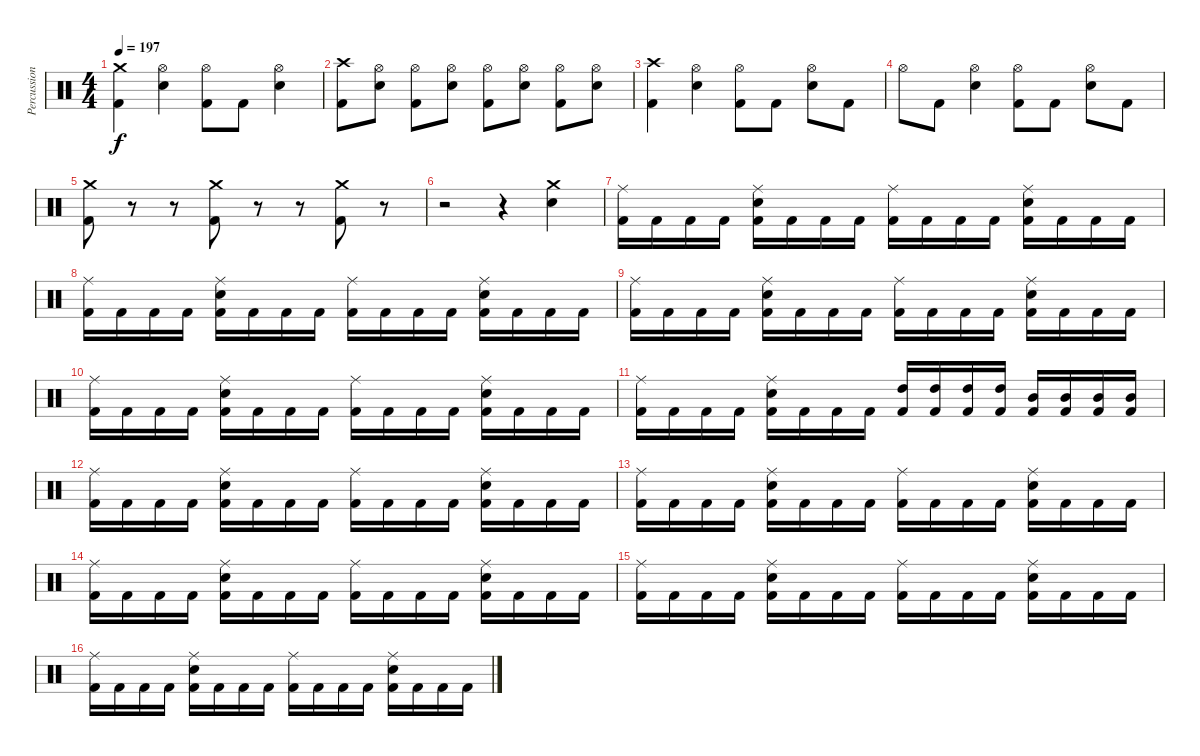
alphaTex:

\track ("Percussions" "Percussion") {instrument percussion}
\staff {score}
\articulation defaults
\ts (4 4)
\tempo 197
\clef neutral
\ks c
("Crash medium (hit)" "Kick (hit) 2").4{dy f} ("Hi-Hat (open)" "Snare (hit) 2").4 ("Hi-Hat (open)" "Kick (hit) 2").8 "Kick (hit) 2".8 ("Hi-Hat (open)" "Snare (hit) 2").4 |
("Crash high (hit)" "Kick (hit) 2").8 ("Hi-Hat (open)" "Snare (hit) 2").8 ("Hi-Hat (open)" "Kick (hit) 2").8 ("Hi-Hat (open)" "Snare (hit) 2").8 ("Hi-Hat (open)" "Kick (hit) 2").8 ("Hi-Hat (open)" "Snare (hit) 2").8 ("Hi-Hat (open)" "Kick (hit) 2").8 ("Hi-Hat (open)" "Snare (hit) 2").8 |
("Crash high (hit)" "Kick (hit) 2").4 ("Hi-Hat (open)" "Snare (hit) 2").4 ("Hi-Hat (open)" "Kick (hit) 2").8 "Kick (hit) 2".8 ("Hi-Hat (open)" "Snare (hit) 2").8 "Kick (hit) 2".8 |
"Hi-Hat (open)".8 "Kick (hit) 2".8 ("Hi-Hat (open)" "Snare (hit) 2").4 ("Hi-Hat (open)" "Kick (hit) 2").8 "Kick (hit) 2".8 ("Hi-Hat (open)" "Snare (hit) 2").8 "Kick (hit) 2".8 |
("Crash medium (hit)" "Kick (hit) 2").8 r.8 r.8 ("Crash medium (hit)" "Kick (hit) 2").8 r.8 r.8 ("Crash medium (hit)" "Kick (hit) 2").8 r.8 |
r.2 r.4 ("Crash medium (hit)" "Snare (hit) 2").4 |
("Ride (middle)" "Kick (hit) 2").16 "Kick (hit) 2".16 "Kick (hit) 2".16 "Kick (hit) 2".16 ("Ride (middle)" "Snare (hit) 2" "Kick (hit) 2").16 "Kick (hit) 2".16 "Kick (hit) 2".16 "Kick (hit) 2".16 ("Ride (middle)" "Kick (hit) 2").16 "Kick (hit) 2".16 "Kick (hit) 2".16 "Kick (hit) 2".16 ("Ride (middle)" "Snare (hit) 2" "Kick (hit) 2").16 "Kick (hit) 2".16 "Kick (hit) 2".16 "Kick (hit) 2".16 |
("Ride (middle)" "Kick (hit) 2").16 "Kick (hit) 2".16 "Kick (hit) 2".16 "Kick (hit) 2".16 ("Ride (middle)" "Snare (hit) 2" "Kick (hit) 2").16 "Kick (hit) 2".16 "Kick (hit) 2".16 "Kick (hit) 2".16 ("Ride (middle)" "Kick (hit) 2").16 "Kick (hit) 2".16 "Kick (hit) 2".16 "Kick (hit) 2".16 ("Ride (middle)" "Snare (hit) 2" "Kick (hit) 2").16 "Kick (hit) 2".16 "Kick (hit) 2".16 "Kick (hit) 2".16 |
("Ride (middle)" "Kick (hit) 2").16 "Kick (hit) 2".16 "Kick (hit) 2".16 "Kick (hit) 2".16 ("Ride (middle)" "Snare (hit) 2" "Kick (hit) 2").16 "Kick (hit) 2".16 "Kick (hit) 2".16 "Kick (hit) 2".16 ("Ride (middle)" "Kick (hit) 2").16 "Kick (hit) 2".16 "Kick (hit) 2".16 "Kick (hit) 2".16 ("Ride (middle)" "Snare (hit) 2" "Kick (hit) 2").16 "Kick (hit) 2".16 "Kick (hit) 2".16 "Kick (hit) 2".16 |
("Ride (middle)" "Kick (hit) 2").16 "Kick (hit) 2".16 "Kick (hit) 2".16 "Kick (hit) 2".16 ("Ride (middle)" "Snare (hit) 2" "Kick (hit) 2").16 "Kick (hit) 2".16 "Kick (hit) 2".16 "Kick (hit) 2".16 ("Ride (middle)" "Kick (hit) 2").16 "Kick (hit) 2".16 "Kick (hit) 2".16 "Kick (hit) 2".16 ("Ride (middle)" "Snare (hit) 2" "Kick (hit) 2").16 "Kick (hit) 2".16 "Kick (hit) 2".16 "Kick (hit) 2".16 |
("Ride (middle)" "Kick (hit) 2").16 "Kick (hit) 2".16 "Kick (hit) 2".16 "Kick (hit) 2".16 ("Ride (middle)" "Snare (hit) 2" "Kick (hit) 2").16 "Kick (hit) 2".16 "Kick (hit) 2".16 "Kick (hit) 2".16 ("High Tom (hit)" "Kick (hit) 2").16 ("High Tom (hit)" "Kick (hit) 2").16 ("High Tom (hit)" "Kick (hit) 2").16 ("High Tom (hit)" "Kick (hit) 2").16 ("Mid Tom (hit)" "Kick (hit) 2").16 ("Mid Tom (hit)" "Kick (hit) 2").16 ("Mid Tom (hit)" "Kick (hit) 2").16 ("Mid Tom (hit)" "Kick (hit) 2").16 |
("Ride (middle)" "Kick (hit) 2").16 "Kick (hit) 2".16 "Kick (hit) 2".16 "Kick (hit) 2".16 ("Ride (middle)" "Snare (hit) 2" "Kick (hit) 2").16 "Kick (hit) 2".16 "Kick (hit) 2".16 "Kick (hit) 2".16 ("Ride (middle)" "Kick (hit) 2").16 "Kick (hit) 2".16 "Kick (hit) 2".16 "Kick (hit) 2".16 ("Ride (middle)" "Snare (hit) 2" "Kick (hit) 2").16 "Kick (hit) 2".16 "Kick (hit) 2".16 "Kick (hit) 2".16 |
("Ride (middle)" "Kick (hit) 2").16 "Kick (hit) 2".16 "Kick (hit) 2".16 "Kick (hit) 2".16 ("Ride (middle)" "Snare (hit) 2" "Kick (hit) 2").16 "Kick (hit) 2".16 "Kick (hit) 2".16 "Kick (hit) 2".16 ("Ride (middle)" "Kick (hit) 2").16 "Kick (hit) 2".16 "Kick (hit) 2".16 "Kick (hit) 2".16 ("Ride (middle)" "Snare (hit) 2" "Kick (hit) 2").16 "Kick (hit) 2".16 "Kick (hit) 2".16 "Kick (hit) 2".16 |
("Ride (middle)" "Kick (hit) 2").16 "Kick (hit) 2".16 "Kick (hit) 2".16 "Kick (hit) 2".16 ("Ride (middle)" "Snare (hit) 2" "Kick (hit) 2").16 "Kick (hit) 2".16 "Kick (hit) 2".16 "Kick (hit) 2".16 ("Ride (middle)" "Kick (hit) 2").16 "Kick (hit) 2".16 "Kick (hit) 2".16 "Kick (hit) 2".16 ("Ride (middle)" "Snare (hit) 2" "Kick (hit) 2").16 "Kick (hit) 2".16 "Kick (hit) 2".16 "Kick (hit) 2".16 |
("Ride (middle)" "Kick (hit) 2").16 "Kick (hit) 2".16 "Kick (hit) 2".16 "Kick (hit) 2".16 ("Ride (middle)" "Snare (hit) 2" "Kick (hit) 2").16 "Kick (hit) 2".16 "Kick (hit) 2".16 "Kick (hit) 2".16 ("Ride (middle)" "Kick (hit) 2").16 "Kick (hit) 2".16 "Kick (hit) 2".16 "Kick (hit) 2".16 ("Ride (middle)" "Snare (hit) 2" "Kick (hit) 2").16 "Kick (hit) 2".16 "Kick (hit) 2".16 "Kick (hit) 2".16 |
("Ride (middle)" "Kick (hit) 2").16 "Kick (hit) 2".16 "Kick (hit) 2".16 "Kick (hit) 2".16 ("Ride (middle)" "Snare (hit) 2" "Kick (hit) 2").16 "Kick (hit) 2".16 "Kick (hit) 2".16 "Kick (hit) 2".16 ("Ride (middle)" "Kick (hit) 2").16 "Kick (hit) 2".16 "Kick (hit) 2".16 "Kick (hit) 2".16 ("Ride (middle)" "Snare (hit) 2" "Kick (hit) 2").16 "Kick (hit) 2".16 "Kick (hit) 2".16 "Kick (hit) 2".16
